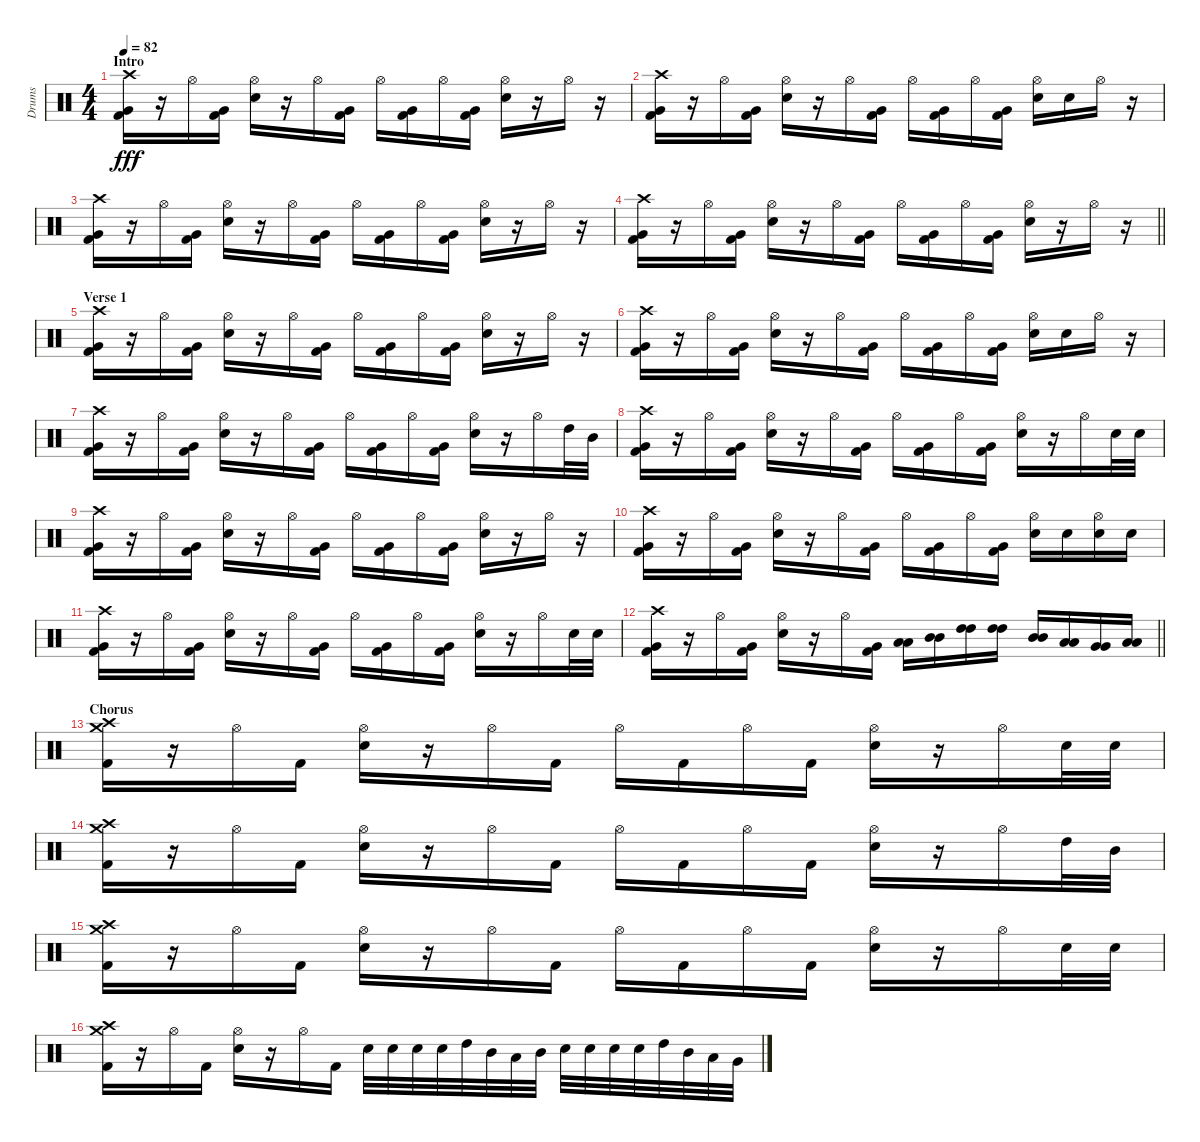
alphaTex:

\track ("Drums" "Drums") {instrument percussion}
\staff {score}
\articulation defaults
\ts (4 4)
\section ("" "Intro")
\tempo 82
\clef neutral
\ks c
("Crash high (hit)" "Very Low Tom (hit)" "Kick (hit) 2").16{dy fff} r.16 "Hi-Hat (open)".16 ("Very Low Tom (hit)" "Kick (hit) 2").16 ("Hi-Hat (open)" "Electric Snare (hit)").16 r.16 "Hi-Hat (open)".16 ("Very Low Tom (hit)" "Kick (hit) 2").16 "Hi-Hat (open)".16 ("Very Low Tom (hit)" "Kick (hit) 2").16 "Hi-Hat (open)".16 ("Very Low Tom (hit)" "Kick (hit) 2").16 ("Hi-Hat (open)" "Electric Snare (hit)").16 r.16 "Hi-Hat (open)".16 r.16 |
("Crash high (hit)" "Very Low Tom (hit)" "Kick (hit) 2").16 r.16 "Hi-Hat (open)".16 ("Very Low Tom (hit)" "Kick (hit) 2").16 ("Hi-Hat (open)" "Electric Snare (hit)").16 r.16 "Hi-Hat (open)".16 ("Very Low Tom (hit)" "Kick (hit) 2").16 "Hi-Hat (open)".16 ("Very Low Tom (hit)" "Kick (hit) 2").16 "Hi-Hat (open)".16 ("Very Low Tom (hit)" "Kick (hit) 2").16 ("Hi-Hat (open)" "Electric Snare (hit)").16 "Electric Snare (hit)".16 "Hi-Hat (open)".16 r.16 |
("Crash high (hit)" "Very Low Tom (hit)" "Kick (hit) 2").16 r.16 "Hi-Hat (open)".16 ("Very Low Tom (hit)" "Kick (hit) 2").16 ("Hi-Hat (open)" "Electric Snare (hit)").16 r.16 "Hi-Hat (open)".16 ("Very Low Tom (hit)" "Kick (hit) 2").16 "Hi-Hat (open)".16 ("Very Low Tom (hit)" "Kick (hit) 2").16 "Hi-Hat (open)".16 ("Very Low Tom (hit)" "Kick (hit) 2").16 ("Hi-Hat (open)" "Electric Snare (hit)").16 r.16 "Hi-Hat (open)".16 r.16 |
\barLineRight lightlight
("Crash high (hit)" "Very Low Tom (hit)" "Kick (hit) 2").16 r.16 "Hi-Hat (open)".16 ("Very Low Tom (hit)" "Kick (hit) 2").16 ("Hi-Hat (open)" "Electric Snare (hit)").16 r.16 "Hi-Hat (open)".16 ("Very Low Tom (hit)" "Kick (hit) 2").16 "Hi-Hat (open)".16 ("Very Low Tom (hit)" "Kick (hit) 2").16 "Hi-Hat (open)".16 ("Very Low Tom (hit)" "Kick (hit) 2").16 ("Hi-Hat (open)" "Electric Snare (hit)").16 r.16 "Hi-Hat (open)".16 r.16 |
\section ("" "Verse 1")
("Crash high (hit)" "Very Low Tom (hit)" "Kick (hit) 2").16 r.16 "Hi-Hat (open)".16 ("Very Low Tom (hit)" "Kick (hit) 2").16 ("Hi-Hat (open)" "Electric Snare (hit)").16 r.16 "Hi-Hat (open)".16 ("Very Low Tom (hit)" "Kick (hit) 2").16 "Hi-Hat (open)".16 ("Very Low Tom (hit)" "Kick (hit) 2").16 "Hi-Hat (open)".16 ("Very Low Tom (hit)" "Kick (hit) 2").16 ("Hi-Hat (open)" "Electric Snare (hit)").16 r.16 "Hi-Hat (open)".16 r.16 |
("Crash high (hit)" "Very Low Tom (hit)" "Kick (hit) 2").16 r.16 "Hi-Hat (open)".16 ("Very Low Tom (hit)" "Kick (hit) 2").16 ("Hi-Hat (open)" "Electric Snare (hit)").16 r.16 "Hi-Hat (open)".16 ("Very Low Tom (hit)" "Kick (hit) 2").16 "Hi-Hat (open)".16 ("Very Low Tom (hit)" "Kick (hit) 2").16 "Hi-Hat (open)".16 ("Very Low Tom (hit)" "Kick (hit) 2").16 ("Hi-Hat (open)" "Electric Snare (hit)").16 "Electric Snare (hit)".16 "Hi-Hat (open)".16 r.16 |
("Crash high (hit)" "Very Low Tom (hit)" "Kick (hit) 2").16 r.16 "Hi-Hat (open)".16 ("Very Low Tom (hit)" "Kick (hit) 2").16 ("Hi-Hat (open)" "Electric Snare (hit)").16 r.16 "Hi-Hat (open)".16 ("Very Low Tom (hit)" "Kick (hit) 2").16 "Hi-Hat (open)".16 ("Very Low Tom (hit)" "Kick (hit) 2").16 "Hi-Hat (open)".16 ("Very Low Tom (hit)" "Kick (hit) 2").16 ("Hi-Hat (open)" "Electric Snare (hit)").16 r.16 "Hi-Hat (open)".16 "High Tom (hit)".32 "Mid Tom (hit)".32 |
("Crash high (hit)" "Very Low Tom (hit)" "Kick (hit) 2").16 r.16 "Hi-Hat (open)".16 ("Very Low Tom (hit)" "Kick (hit) 2").16 ("Hi-Hat (open)" "Electric Snare (hit)").16 r.16 "Hi-Hat (open)".16 ("Very Low Tom (hit)" "Kick (hit) 2").16 "Hi-Hat (open)".16 ("Very Low Tom (hit)" "Kick (hit) 2").16 "Hi-Hat (open)".16 ("Very Low Tom (hit)" "Kick (hit) 2").16 ("Hi-Hat (open)" "Electric Snare (hit)").16 r.16 "Hi-Hat (open)".16 "Electric Snare (hit)".32 "Electric Snare (hit)".32 |
("Crash high (hit)" "Very Low Tom (hit)" "Kick (hit) 2").16 r.16 "Hi-Hat (open)".16 ("Very Low Tom (hit)" "Kick (hit) 2").16 ("Hi-Hat (open)" "Electric Snare (hit)").16 r.16 "Hi-Hat (open)".16 ("Very Low Tom (hit)" "Kick (hit) 2").16 "Hi-Hat (open)".16 ("Very Low Tom (hit)" "Kick (hit) 2").16 "Hi-Hat (open)".16 ("Very Low Tom (hit)" "Kick (hit) 2").16 ("Hi-Hat (open)" "Electric Snare (hit)").16 r.16 "Hi-Hat (open)".16 r.16 |
("Crash high (hit)" "Very Low Tom (hit)" "Kick (hit) 2").16 r.16 "Hi-Hat (open)".16 ("Very Low Tom (hit)" "Kick (hit) 2").16 ("Hi-Hat (open)" "Electric Snare (hit)").16 r.16 "Hi-Hat (open)".16 ("Very Low Tom (hit)" "Kick (hit) 2").16 "Hi-Hat (open)".16 ("Very Low Tom (hit)" "Kick (hit) 2").16 "Hi-Hat (open)".16 ("Very Low Tom (hit)" "Kick (hit) 2").16 ("Hi-Hat (open)" "Electric Snare (hit)").16 "Electric Snare (hit)".16 ("Hi-Hat (open)" "Electric Snare (hit)").16 "Electric Snare (hit)".16 |
("Crash high (hit)" "Very Low Tom (hit)" "Kick (hit) 2").16 r.16 "Hi-Hat (open)".16 ("Very Low Tom (hit)" "Kick (hit) 2").16 ("Hi-Hat (open)" "Electric Snare (hit)").16 r.16 "Hi-Hat (open)".16 ("Very Low Tom (hit)" "Kick (hit) 2").16 "Hi-Hat (open)".16 ("Very Low Tom (hit)" "Kick (hit) 2").16 "Hi-Hat (open)".16 ("Very Low Tom (hit)" "Kick (hit) 2").16 ("Hi-Hat (open)" "Electric Snare (hit)").16 r.16 "Hi-Hat (open)".16 "Electric Snare (hit)".32 "Electric Snare (hit)".32 |
\barLineRight lightlight
("Crash high (hit)" "Very Low Tom (hit)" "Kick (hit) 2").16 r.16 "Hi-Hat (open)".16 ("Very Low Tom (hit)" "Kick (hit) 2").16 ("Hi-Hat (open)" "Electric Snare (hit)").16 r.16 "Hi-Hat (open)".16 ("Very Low Tom (hit)" "Kick (hit) 2").16 ("Low Tom (hit)" "Low Tom (hit)").16 ("Mid Tom (hit)" "Mid Tom (hit)").16 ("High Tom (hit)" "High Tom (hit)").16 ("High Tom (hit)" "High Tom (hit)").16 ("Mid Tom (hit)" "Mid Tom (hit)").16 ("Low Tom (hit)" "Low Tom (hit)").16 ("Very Low Tom (hit)" "Very Low Tom (hit)").16 ("Low Floor Tom (hit)" "Low Floor Tom (hit)").16 |
\section ("" "Chorus")
("Crash high (hit)" "Crash medium (hit)" "Kick (hit) 2").16 r.16 "Hi-Hat (open)".16 "Kick (hit) 2".16 ("Hi-Hat (open)" "Electric Snare (hit)").16 r.16 "Hi-Hat (open)".16 "Kick (hit) 2".16 "Hi-Hat (open)".16 "Kick (hit) 2".16 "Hi-Hat (open)".16 "Kick (hit) 2".16 ("Hi-Hat (open)" "Electric Snare (hit)").16 r.16 "Hi-Hat (open)".16 "Electric Snare (hit)".32 "Electric Snare (hit)".32 |
("Crash high (hit)" "Crash medium (hit)" "Kick (hit) 2").16 r.16 "Hi-Hat (open)".16 "Kick (hit) 2".16 ("Hi-Hat (open)" "Electric Snare (hit)").16 r.16 "Hi-Hat (open)".16 "Kick (hit) 2".16 "Hi-Hat (open)".16 "Kick (hit) 2".16 "Hi-Hat (open)".16 "Kick (hit) 2".16 ("Hi-Hat (open)" "Electric Snare (hit)").16 r.16 "Hi-Hat (open)".16 "High Tom (hit)".32 "Mid Tom (hit)".32 |
("Crash high (hit)" "Crash medium (hit)" "Kick (hit) 2").16 r.16 "Hi-Hat (open)".16 "Kick (hit) 2".16 ("Hi-Hat (open)" "Electric Snare (hit)").16 r.16 "Hi-Hat (open)".16 "Kick (hit) 2".16 "Hi-Hat (open)".16 "Kick (hit) 2".16 "Hi-Hat (open)".16 "Kick (hit) 2".16 ("Hi-Hat (open)" "Electric Snare (hit)").16 r.16 "Hi-Hat (open)".16 "Electric Snare (hit)".32 "Electric Snare (hit)".32 |
("Crash high (hit)" "Crash medium (hit)" "Kick (hit) 2").16 r.16 "Hi-Hat (open)".16 "Kick (hit) 2".16 ("Hi-Hat (open)" "Electric Snare (hit)").16 r.16 "Hi-Hat (open)".16 "Kick (hit) 2".16 "Electric Snare (hit)".32 "Electric Snare (hit)".32 "Electric Snare (hit)".32 "Electric Snare (hit)".32 "High Tom (hit)".32 "Mid Tom (hit)".32 "Low Tom (hit)".32 "Mid Tom (hit)".32 "Electric Snare (hit)".32 "Electric Snare (hit)".32 "Electric Snare (hit)".32 "Electric Snare (hit)".32 "High Tom (hit)".32 "Mid Tom (hit)".32 "Low Tom (hit)".32 "Very Low Tom (hit)".32
